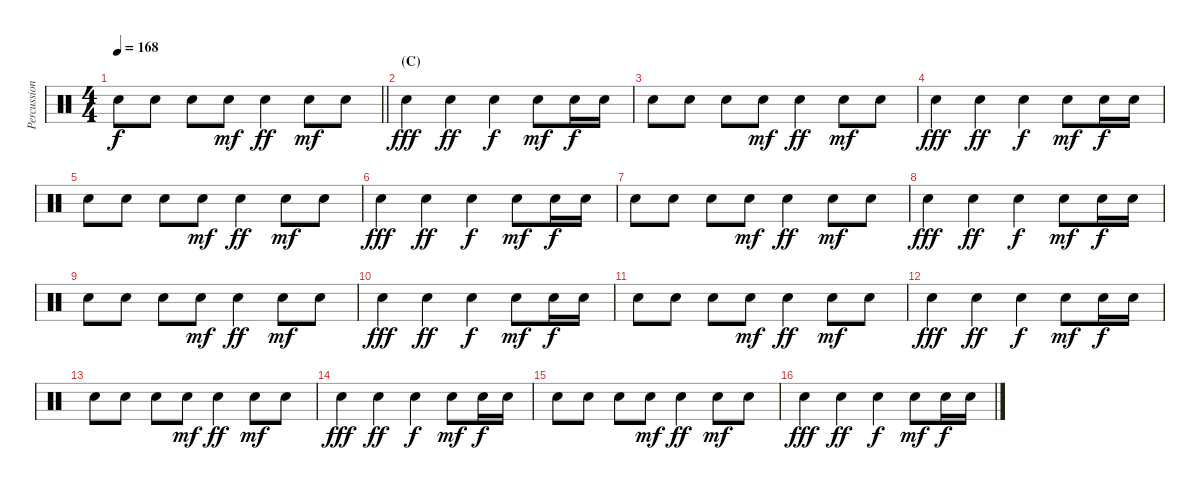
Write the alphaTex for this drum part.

\track ("Percussion" "Percussion") {instrument percussion}
\staff {score}
\articulation defaults
\ts (4 4)
\tempo 168
\clef neutral
\barLineRight lightlight
\ks c "Snare (hit) 2".8{dy f} "Snare (hit) 2".8 "Snare (hit) 2".8 "Snare (hit) 2".8{dy mf} "Snare (hit) 2".4{dy ff} "Snare (hit) 2".8{dy mf} "Snare (hit) 2".8
|
\section ("" "(C)")
"Snare (hit) 2".4{dy fff} "Snare (hit) 2".4{dy ff} "Snare (hit) 2".4{dy f} "Snare (hit) 2".8{dy mf} "Snare (hit) 2".16{dy f} "Snare (hit) 2".16 |
"Snare (hit) 2".8 "Snare (hit) 2".8 "Snare (hit) 2".8 "Snare (hit) 2".8{dy mf} "Snare (hit) 2".4{dy ff} "Snare (hit) 2".8{dy mf} "Snare (hit) 2".8 |
"Snare (hit) 2".4{dy fff} "Snare (hit) 2".4{dy ff} "Snare (hit) 2".4{dy f} "Snare (hit) 2".8{dy mf} "Snare (hit) 2".16{dy f} "Snare (hit) 2".16 |
"Snare (hit) 2".8 "Snare (hit) 2".8 "Snare (hit) 2".8 "Snare (hit) 2".8{dy mf} "Snare (hit) 2".4{dy ff} "Snare (hit) 2".8{dy mf} "Snare (hit) 2".8 |
"Snare (hit) 2".4{dy fff} "Snare (hit) 2".4{dy ff} "Snare (hit) 2".4{dy f} "Snare (hit) 2".8{dy mf} "Snare (hit) 2".16{dy f} "Snare (hit) 2".16 |
"Snare (hit) 2".8 "Snare (hit) 2".8 "Snare (hit) 2".8 "Snare (hit) 2".8{dy mf} "Snare (hit) 2".4{dy ff} "Snare (hit) 2".8{dy mf} "Snare (hit) 2".8 |
"Snare (hit) 2".4{dy fff} "Snare (hit) 2".4{dy ff} "Snare (hit) 2".4{dy f} "Snare (hit) 2".8{dy mf} "Snare (hit) 2".16{dy f} "Snare (hit) 2".16 |
"Snare (hit) 2".8 "Snare (hit) 2".8 "Snare (hit) 2".8 "Snare (hit) 2".8{dy mf} "Snare (hit) 2".4{dy ff} "Snare (hit) 2".8{dy mf} "Snare (hit) 2".8 |
"Snare (hit) 2".4{dy fff} "Snare (hit) 2".4{dy ff} "Snare (hit) 2".4{dy f} "Snare (hit) 2".8{dy mf} "Snare (hit) 2".16{dy f} "Snare (hit) 2".16 |
"Snare (hit) 2".8 "Snare (hit) 2".8 "Snare (hit) 2".8 "Snare (hit) 2".8{dy mf} "Snare (hit) 2".4{dy ff} "Snare (hit) 2".8{dy mf} "Snare (hit) 2".8 |
"Snare (hit) 2".4{dy fff} "Snare (hit) 2".4{dy ff} "Snare (hit) 2".4{dy f} "Snare (hit) 2".8{dy mf} "Snare (hit) 2".16{dy f} "Snare (hit) 2".16 |
"Snare (hit) 2".8 "Snare (hit) 2".8 "Snare (hit) 2".8 "Snare (hit) 2".8{dy mf} "Snare (hit) 2".4{dy ff} "Snare (hit) 2".8{dy mf} "Snare (hit) 2".8 |
"Snare (hit) 2".4{dy fff} "Snare (hit) 2".4{dy ff} "Snare (hit) 2".4{dy f} "Snare (hit) 2".8{dy mf} "Snare (hit) 2".16{dy f} "Snare (hit) 2".16 |
"Snare (hit) 2".8 "Snare (hit) 2".8 "Snare (hit) 2".8 "Snare (hit) 2".8{dy mf} "Snare (hit) 2".4{dy ff} "Snare (hit) 2".8{dy mf} "Snare (hit) 2".8 |
"Snare (hit) 2".4{dy fff} "Snare (hit) 2".4{dy ff} "Snare (hit) 2".4{dy f} "Snare (hit) 2".8{dy mf} "Snare (hit) 2".16{dy f} "Snare (hit) 2".16
